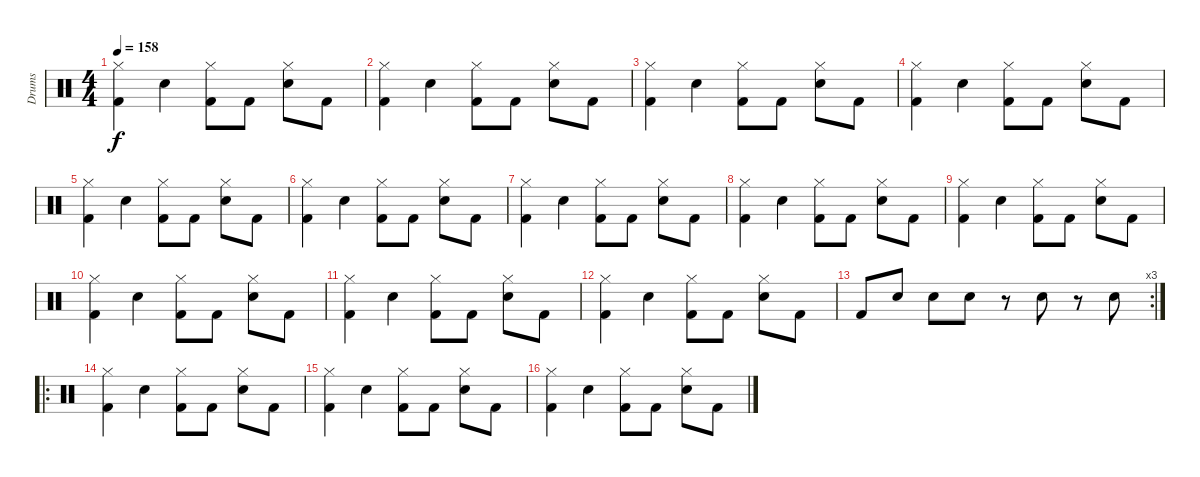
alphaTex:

\track ("Drums" "Drums") {instrument percussion}
\staff {score}
\articulation defaults
\ts (4 4)
\tempo 158
\clef neutral
\ks c
("Hi-Hat (closed)" "Kick (hit) 2").4{dy f} "Snare (hit) 2".4 ("Hi-Hat (closed)" "Kick (hit) 2").8 "Kick (hit) 2".8 ("Hi-Hat (closed)" "Snare (hit) 2").8 "Kick (hit) 2".8 |
("Hi-Hat (closed)" "Kick (hit) 2").4 "Snare (hit) 2".4 ("Hi-Hat (closed)" "Kick (hit) 2").8 "Kick (hit) 2".8 ("Hi-Hat (closed)" "Snare (hit) 2").8 "Kick (hit) 2".8 |
("Hi-Hat (closed)" "Kick (hit) 2").4 "Snare (hit) 2".4 ("Hi-Hat (closed)" "Kick (hit) 2").8 "Kick (hit) 2".8 ("Hi-Hat (closed)" "Snare (hit) 2").8 "Kick (hit) 2".8 |
("Hi-Hat (closed)" "Kick (hit) 2").4 "Snare (hit) 2".4 ("Hi-Hat (closed)" "Kick (hit) 2").8 "Kick (hit) 2".8 ("Hi-Hat (closed)" "Snare (hit) 2").8 "Kick (hit) 2".8 |
("Hi-Hat (closed)" "Kick (hit) 2").4 "Snare (hit) 2".4 ("Hi-Hat (closed)" "Kick (hit) 2").8 "Kick (hit) 2".8 ("Hi-Hat (closed)" "Snare (hit) 2").8 "Kick (hit) 2".8 |
("Hi-Hat (closed)" "Kick (hit) 2").4 "Snare (hit) 2".4 ("Hi-Hat (closed)" "Kick (hit) 2").8 "Kick (hit) 2".8 ("Hi-Hat (closed)" "Snare (hit) 2").8 "Kick (hit) 2".8 |
("Hi-Hat (closed)" "Kick (hit) 2").4 "Snare (hit) 2".4 ("Hi-Hat (closed)" "Kick (hit) 2").8 "Kick (hit) 2".8 ("Hi-Hat (closed)" "Snare (hit) 2").8 "Kick (hit) 2".8 |
("Hi-Hat (closed)" "Kick (hit) 2").4 "Snare (hit) 2".4 ("Hi-Hat (closed)" "Kick (hit) 2").8 "Kick (hit) 2".8 ("Hi-Hat (closed)" "Snare (hit) 2").8 "Kick (hit) 2".8 |
("Hi-Hat (closed)" "Kick (hit) 2").4 "Snare (hit) 2".4 ("Hi-Hat (closed)" "Kick (hit) 2").8 "Kick (hit) 2".8 ("Hi-Hat (closed)" "Snare (hit) 2").8 "Kick (hit) 2".8 |
("Hi-Hat (closed)" "Kick (hit) 2").4 "Snare (hit) 2".4 ("Hi-Hat (closed)" "Kick (hit) 2").8 "Kick (hit) 2".8 ("Hi-Hat (closed)" "Snare (hit) 2").8 "Kick (hit) 2".8 |
("Hi-Hat (closed)" "Kick (hit) 2").4 "Snare (hit) 2".4 ("Hi-Hat (closed)" "Kick (hit) 2").8 "Kick (hit) 2".8 ("Hi-Hat (closed)" "Snare (hit) 2").8 "Kick (hit) 2".8 |
("Hi-Hat (closed)" "Kick (hit) 2").4 "Snare (hit) 2".4 ("Hi-Hat (closed)" "Kick (hit) 2").8 "Kick (hit) 2".8 ("Hi-Hat (closed)" "Snare (hit) 2").8 "Kick (hit) 2".8 |
\rc 3 "Kick (hit) 2".8 "Snare (hit) 2".8 "Snare (hit) 2".8 "Snare (hit) 2".8
r.8 "Snare (hit) 2".8 r.8 "Snare (hit) 2".8 |
\ro
("Hi-Hat (closed)" "Kick (hit) 2").4 "Snare (hit) 2".4 ("Hi-Hat (closed)" "Kick (hit) 2").8 "Kick (hit) 2".8 ("Hi-Hat (closed)" "Snare (hit) 2").8 "Kick (hit) 2".8 |
("Hi-Hat (closed)" "Kick (hit) 2").4 "Snare (hit) 2".4 ("Hi-Hat (closed)" "Kick (hit) 2").8 "Kick (hit) 2".8 ("Hi-Hat (closed)" "Snare (hit) 2").8 "Kick (hit) 2".8 |
("Hi-Hat (closed)" "Kick (hit) 2").4 "Snare (hit) 2".4 ("Hi-Hat (closed)" "Kick (hit) 2").8 "Kick (hit) 2".8 ("Hi-Hat (closed)" "Snare (hit) 2").8 "Kick (hit) 2".8
